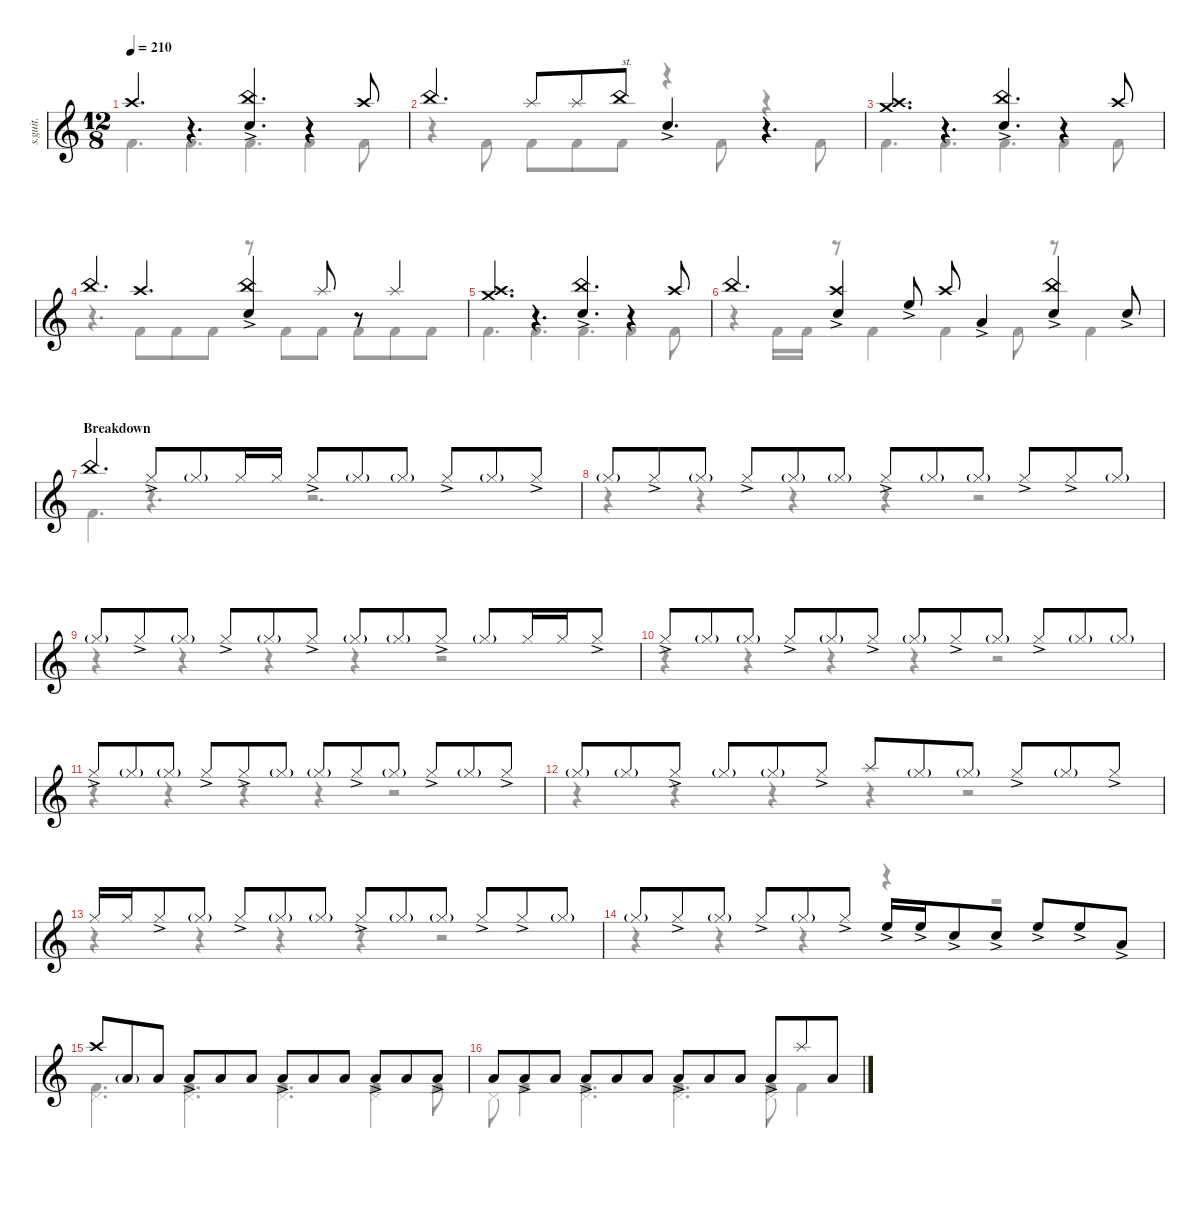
\defaultSystemsLayout 4
\hideDynamics
\bracketExtendMode nobrackets
\track ("Percussion" "s.guit.") {instrument percussion}
\staff {score}
\articulation defaults
\voice
\ts (12 8)
\tempo 210
\clef g2
\ks c "Crash high (hit)".4{d lyrics (0 "") lyrics (1 "") lyrics (2 "") lyrics (3 "") lyrics (4 "") dy f}
r.4{d} ("China (hit)" "Snare (hit) 2"{ac}).4{d lyrics (0 "") lyrics (1 "") lyrics (2 "") lyrics (3 "") lyrics (4 "")} r.4 "Crash high (hit)".8{lyrics (0 "") lyrics (1 "") lyrics (2 "") lyrics (3 "") lyrics (4 "")} |
"China (hit)".4{d lyrics (0 "") lyrics (1 "") lyrics (2 "") lyrics (3 "") lyrics (4 "")} "Splash (hit)".8{lyrics (0 "") lyrics (1 "") lyrics (2 "") lyrics (3 "") lyrics (4 "")} "Splash (hit)".8{lyrics (0 "") lyrics (1 "") lyrics (2 "") lyrics (3 "") lyrics (4 "")} "China (hit)".8{txt "st." lyrics (0 "") lyrics (1 "") lyrics (2 "") lyrics (3 "") lyrics (4 "")} "Snare (hit) 2"{ac}.4{d lyrics (0 "") lyrics (1 "") lyrics (2 "") lyrics (3 "") lyrics (4 "") dy mf} r.4{d} |
("Crash high (hit)" "Crash medium (hit)").4{d lyrics (0 "") lyrics (1 "") lyrics (2 "") lyrics (3 "") lyrics (4 "") dy f} r.4{d} ("China (hit)" "Snare (hit) 2"{ac}).4{d lyrics (0 "") lyrics (1 "") lyrics (2 "") lyrics (3 "") lyrics (4 "")} r.4 "Crash high (hit)".8{lyrics (0 "") lyrics (1 "") lyrics (2 "") lyrics (3 "") lyrics (4 "")} |
"China (hit)".4{d lyrics (0 "") lyrics (1 "") lyrics (2 "") lyrics (3 "") lyrics (4 "")} "Crash high (hit)".4{d lyrics (0 "") lyrics (1 "") lyrics (2 "") lyrics (3 "") lyrics (4 "")} ("China (hit)" "Snare (hit) 2"{ac}).4{lyrics (0 "") lyrics (1 "") lyrics (2 "") lyrics (3 "") lyrics (4 "")} "Splash (hit)".8{lyrics (0 "") lyrics (1 "") lyrics (2 "") lyrics (3 "") lyrics (4 "")} r.8 "Splash (hit)".4{lyrics (0 "") lyrics (1 "") lyrics (2 "") lyrics (3 "") lyrics (4 "")} |
("Crash high (hit)" "Crash medium (hit)").4{d lyrics (0 "") lyrics (1 "") lyrics (2 "") lyrics (3 "") lyrics (4 "")} r.4{d} ("China (hit)" "Snare (hit) 2"{ac}).4{d lyrics (0 "") lyrics (1 "") lyrics (2 "") lyrics (3 "") lyrics (4 "")} r.4 "Crash high (hit)".8{lyrics (0 "") lyrics (1 "") lyrics (2 "") lyrics (3 "") lyrics (4 "")} |
"China (hit)".4{d lyrics (0 "") lyrics (1 "") lyrics (2 "") lyrics (3 "") lyrics (4 "")} ("Crash high (hit)" "Snare (hit) 2"{ac}).4{lyrics (0 "") lyrics (1 "") lyrics (2 "") lyrics (3 "") lyrics (4 "")} "High Floor Tom (hit)"{ac}.8{lyrics (0 "") lyrics (1 "") lyrics (2 "") lyrics (3 "") lyrics (4 "") dy mf} "Crash high (hit)".8{lyrics (0 "") lyrics (1 "") lyrics (2 "") lyrics (3 "") lyrics (4 "") dy f} "Low Tom (hit)"{ac}.4{lyrics (0 "") lyrics (1 "") lyrics (2 "") lyrics (3 "") lyrics (4 "") dy mf} ("China (hit)" "Snare (hit) 2"{ac}).4{lyrics (0 "") lyrics (1 "") lyrics (2 "") lyrics (3 "") lyrics (4 "") dy f} "Snare (hit) 2"{ac}.8{lyrics (0 "") lyrics (1 "") lyrics (2 "") lyrics (3 "") lyrics (4 "") dy mf} |
\section ("" "Breakdown")
"China (hit)".4{d lyrics (0 "") lyrics (1 "") lyrics (2 "") lyrics (3 "") lyrics (4 "") dy f} "Hi-Hat (closed)"{ac}.8{lyrics (0 "") lyrics (1 "") lyrics (2 "") lyrics (3 "") lyrics (4 "") dy mp} "Hi-Hat (closed)"{g}.8{lyrics (0 "") lyrics (1 "") lyrics (2 "") lyrics (3 "") lyrics (4 "") dy f} "Hi-Hat (closed)".16{lyrics (0 "") lyrics (1 "") lyrics (2 "") lyrics (3 "") lyrics (4 "") dy mf} "Hi-Hat (closed)".16{lyrics (0 "") lyrics (1 "") lyrics (2 "") lyrics (3 "") lyrics (4 "")} "Hi-Hat (closed)"{ac}.8{lyrics (0 "") lyrics (1 "") lyrics (2 "") lyrics (3 "") lyrics (4 "") dy mp} "Hi-Hat (closed)"{g}.8{lyrics (0 "") lyrics (1 "") lyrics (2 "") lyrics (3 "") lyrics (4 "") dy f} "Hi-Hat (closed)"{g}.8{lyrics (0 "") lyrics (1 "") lyrics (2 "") lyrics (3 "") lyrics (4 "")} "Hi-Hat (closed)"{ac}.8{lyrics (0 "") lyrics (1 "") lyrics (2 "") lyrics (3 "") lyrics (4 "") dy mp} "Hi-Hat (closed)"{g}.8{lyrics (0 "") lyrics (1 "") lyrics (2 "") lyrics (3 "") lyrics (4 "") dy f} "Hi-Hat (closed)"{ac}.8{lyrics (0 "") lyrics (1 "") lyrics (2 "") lyrics (3 "") lyrics (4 "") dy mp} |
"Hi-Hat (closed)"{g}.8{lyrics (0 "") lyrics (1 "") lyrics (2 "") lyrics (3 "") lyrics (4 "") dy f} "Hi-Hat (closed)"{ac}.8{lyrics (0 "") lyrics (1 "") lyrics (2 "") lyrics (3 "") lyrics (4 "") dy mp} "Hi-Hat (closed)"{g}.8{lyrics (0 "") lyrics (1 "") lyrics (2 "") lyrics (3 "") lyrics (4 "") dy f} "Hi-Hat (closed)"{ac}.8{lyrics (0 "") lyrics (1 "") lyrics (2 "") lyrics (3 "") lyrics (4 "") dy mp} "Hi-Hat (closed)"{g}.8{lyrics (0 "") lyrics (1 "") lyrics (2 "") lyrics (3 "") lyrics (4 "") dy f} "Hi-Hat (closed)"{g}.8{lyrics (0 "") lyrics (1 "") lyrics (2 "") lyrics (3 "") lyrics (4 "")} "Hi-Hat (closed)"{ac}.8{lyrics (0 "") lyrics (1 "") lyrics (2 "") lyrics (3 "") lyrics (4 "") dy mp} "Hi-Hat (closed)"{g}.8{lyrics (0 "") lyrics (1 "") lyrics (2 "") lyrics (3 "") lyrics (4 "") dy f} "Hi-Hat (closed)"{g}.8{lyrics (0 "") lyrics (1 "") lyrics (2 "") lyrics (3 "") lyrics (4 "")} "Hi-Hat (closed)"{ac}.8{lyrics (0 "") lyrics (1 "") lyrics (2 "") lyrics (3 "") lyrics (4 "") dy mp} "Hi-Hat (closed)"{ac}.8{lyrics (0 "") lyrics (1 "") lyrics (2 "") lyrics (3 "") lyrics (4 "")} "Hi-Hat (closed)"{g}.8{lyrics (0 "") lyrics (1 "") lyrics (2 "") lyrics (3 "") lyrics (4 "") dy f} |
"Hi-Hat (closed)"{g}.8{lyrics (0 "") lyrics (1 "") lyrics (2 "") lyrics (3 "") lyrics (4 "")} "Hi-Hat (closed)"{ac}.8{lyrics (0 "") lyrics (1 "") lyrics (2 "") lyrics (3 "") lyrics (4 "") dy mp} "Hi-Hat (closed)"{g}.8{lyrics (0 "") lyrics (1 "") lyrics (2 "") lyrics (3 "") lyrics (4 "") dy f} "Hi-Hat (closed)"{ac}.8{lyrics (0 "") lyrics (1 "") lyrics (2 "") lyrics (3 "") lyrics (4 "") dy mp} "Hi-Hat (closed)"{g}.8{lyrics (0 "") lyrics (1 "") lyrics (2 "") lyrics (3 "") lyrics (4 "") dy f} "Hi-Hat (closed)"{ac}.8{lyrics (0 "") lyrics (1 "") lyrics (2 "") lyrics (3 "") lyrics (4 "") dy mp} "Hi-Hat (closed)"{g}.8{lyrics (0 "") lyrics (1 "") lyrics (2 "") lyrics (3 "") lyrics (4 "") dy f} "Hi-Hat (closed)"{g}.8{lyrics (0 "") lyrics (1 "") lyrics (2 "") lyrics (3 "") lyrics (4 "")} "Hi-Hat (closed)"{ac}.8{lyrics (0 "") lyrics (1 "") lyrics (2 "") lyrics (3 "") lyrics (4 "") dy mp} "Hi-Hat (closed)"{g}.8{lyrics (0 "") lyrics (1 "") lyrics (2 "") lyrics (3 "") lyrics (4 "") dy f} "Hi-Hat (closed)".16{lyrics (0 "") lyrics (1 "") lyrics (2 "") lyrics (3 "") lyrics (4 "") dy mf} "Hi-Hat (closed)".16{lyrics (0 "") lyrics (1 "") lyrics (2 "") lyrics (3 "") lyrics (4 "")} "Hi-Hat (closed)"{ac}.8{lyrics (0 "") lyrics (1 "") lyrics (2 "") lyrics (3 "") lyrics (4 "") dy mp} |
"Hi-Hat (closed)"{ac}.8{lyrics (0 "") lyrics (1 "") lyrics (2 "") lyrics (3 "") lyrics (4 "")} "Hi-Hat (closed)"{g}.8{lyrics (0 "") lyrics (1 "") lyrics (2 "") lyrics (3 "") lyrics (4 "") dy f} "Hi-Hat (closed)"{g}.8{lyrics (0 "") lyrics (1 "") lyrics (2 "") lyrics (3 "") lyrics (4 "")} "Hi-Hat (closed)"{ac}.8{lyrics (0 "") lyrics (1 "") lyrics (2 "") lyrics (3 "") lyrics (4 "") dy mp} "Hi-Hat (closed)"{g}.8{lyrics (0 "") lyrics (1 "") lyrics (2 "") lyrics (3 "") lyrics (4 "") dy f} "Hi-Hat (closed)"{ac}.8{lyrics (0 "") lyrics (1 "") lyrics (2 "") lyrics (3 "") lyrics (4 "") dy mp} "Hi-Hat (closed)"{g}.8{lyrics (0 "") lyrics (1 "") lyrics (2 "") lyrics (3 "") lyrics (4 "") dy f} "Hi-Hat (closed)"{ac}.8{lyrics (0 "") lyrics (1 "") lyrics (2 "") lyrics (3 "") lyrics (4 "") dy mp} "Hi-Hat (closed)"{g}.8{lyrics (0 "") lyrics (1 "") lyrics (2 "") lyrics (3 "") lyrics (4 "") dy f} "Hi-Hat (closed)"{ac}.8{lyrics (0 "") lyrics (1 "") lyrics (2 "") lyrics (3 "") lyrics (4 "") dy mp} "Hi-Hat (closed)"{g}.8{lyrics (0 "") lyrics (1 "") lyrics (2 "") lyrics (3 "") lyrics (4 "") dy f} "Hi-Hat (closed)"{g}.8{lyrics (0 "") lyrics (1 "") lyrics (2 "") lyrics (3 "") lyrics (4 "")} |
"Hi-Hat (closed)"{ac}.8{lyrics (0 "") lyrics (1 "") lyrics (2 "") lyrics (3 "") lyrics (4 "") dy mp} "Hi-Hat (closed)"{g}.8{lyrics (0 "") lyrics (1 "") lyrics (2 "") lyrics (3 "") lyrics (4 "") dy f} "Hi-Hat (closed)"{g}.8{lyrics (0 "") lyrics (1 "") lyrics (2 "") lyrics (3 "") lyrics (4 "")} "Hi-Hat (closed)"{ac}.8{lyrics (0 "") lyrics (1 "") lyrics (2 "") lyrics (3 "") lyrics (4 "") dy mp} "Hi-Hat (closed)"{ac}.8{lyrics (0 "") lyrics (1 "") lyrics (2 "") lyrics (3 "") lyrics (4 "")} "Hi-Hat (closed)"{g}.8{lyrics (0 "") lyrics (1 "") lyrics (2 "") lyrics (3 "") lyrics (4 "") dy f} "Hi-Hat (closed)"{g}.8{lyrics (0 "") lyrics (1 "") lyrics (2 "") lyrics (3 "") lyrics (4 "")} "Hi-Hat (closed)"{ac}.8{lyrics (0 "") lyrics (1 "") lyrics (2 "") lyrics (3 "") lyrics (4 "") dy mp} "Hi-Hat (closed)"{g}.8{lyrics (0 "") lyrics (1 "") lyrics (2 "") lyrics (3 "") lyrics (4 "") dy f} "Hi-Hat (closed)"{ac}.8{lyrics (0 "") lyrics (1 "") lyrics (2 "") lyrics (3 "") lyrics (4 "") dy mp} "Hi-Hat (closed)"{g}.8{lyrics (0 "") lyrics (1 "") lyrics (2 "") lyrics (3 "") lyrics (4 "") dy f} "Hi-Hat (closed)"{ac}.8{lyrics (0 "") lyrics (1 "") lyrics (2 "") lyrics (3 "") lyrics (4 "") dy mp} |
"Hi-Hat (closed)"{g}.8{lyrics (0 "") lyrics (1 "") lyrics (2 "") lyrics (3 "") lyrics (4 "") dy f} "Hi-Hat (closed)"{g}.8{lyrics (0 "") lyrics (1 "") lyrics (2 "") lyrics (3 "") lyrics (4 "")} "Hi-Hat (closed)"{ac}.8{lyrics (0 "") lyrics (1 "") lyrics (2 "") lyrics (3 "") lyrics (4 "") dy mp} "Hi-Hat (closed)"{g}.8{lyrics (0 "") lyrics (1 "") lyrics (2 "") lyrics (3 "") lyrics (4 "") dy f} "Hi-Hat (closed)"{g}.8{lyrics (0 "") lyrics (1 "") lyrics (2 "") lyrics (3 "") lyrics (4 "")} "Hi-Hat (closed)"{ac}.8{lyrics (0 "") lyrics (1 "") lyrics (2 "") lyrics (3 "") lyrics (4 "") dy mp} "Splash (hit)".8{lyrics (0 "") lyrics (1 "") lyrics (2 "") lyrics (3 "") lyrics (4 "") dy mf} "Hi-Hat (closed)"{g}.8{lyrics (0 "") lyrics (1 "") lyrics (2 "") lyrics (3 "") lyrics (4 "") dy f} "Hi-Hat (closed)"{g}.8{lyrics (0 "") lyrics (1 "") lyrics (2 "") lyrics (3 "") lyrics (4 "")} "Hi-Hat (closed)"{ac}.8{lyrics (0 "") lyrics (1 "") lyrics (2 "") lyrics (3 "") lyrics (4 "") dy mp} "Hi-Hat (closed)"{g}.8{lyrics (0 "") lyrics (1 "") lyrics (2 "") lyrics (3 "") lyrics (4 "") dy f} "Hi-Hat (closed)"{ac}.8{lyrics (0 "") lyrics (1 "") lyrics (2 "") lyrics (3 "") lyrics (4 "") dy mp} |
"Hi-Hat (closed)".16{lyrics (0 "") lyrics (1 "") lyrics (2 "") lyrics (3 "") lyrics (4 "") dy mf} "Hi-Hat (closed)".16{lyrics (0 "") lyrics (1 "") lyrics (2 "") lyrics (3 "") lyrics (4 "")} "Hi-Hat (closed)"{ac}.8{lyrics (0 "") lyrics (1 "") lyrics (2 "") lyrics (3 "") lyrics (4 "") dy mp} "Hi-Hat (closed)"{g}.8{lyrics (0 "") lyrics (1 "") lyrics (2 "") lyrics (3 "") lyrics (4 "") dy f} "Hi-Hat (closed)"{ac}.8{lyrics (0 "") lyrics (1 "") lyrics (2 "") lyrics (3 "") lyrics (4 "") dy mp} "Hi-Hat (closed)"{g}.8{lyrics (0 "") lyrics (1 "") lyrics (2 "") lyrics (3 "") lyrics (4 "") dy f} "Hi-Hat (closed)"{g}.8{lyrics (0 "") lyrics (1 "") lyrics (2 "") lyrics (3 "") lyrics (4 "")} "Hi-Hat (closed)"{ac}.8{lyrics (0 "") lyrics (1 "") lyrics (2 "") lyrics (3 "") lyrics (4 "") dy mp} "Hi-Hat (closed)"{g}.8{lyrics (0 "") lyrics (1 "") lyrics (2 "") lyrics (3 "") lyrics (4 "") dy f} "Hi-Hat (closed)"{g}.8{lyrics (0 "") lyrics (1 "") lyrics (2 "") lyrics (3 "") lyrics (4 "")} "Hi-Hat (closed)"{ac}.8{lyrics (0 "") lyrics (1 "") lyrics (2 "") lyrics (3 "") lyrics (4 "") dy mp} "Hi-Hat (closed)"{ac}.8{lyrics (0 "") lyrics (1 "") lyrics (2 "") lyrics (3 "") lyrics (4 "")} "Hi-Hat (closed)"{g}.8{lyrics (0 "") lyrics (1 "") lyrics (2 "") lyrics (3 "") lyrics (4 "") dy f} |
"Hi-Hat (closed)"{g}.8{lyrics (0 "") lyrics (1 "") lyrics (2 "") lyrics (3 "") lyrics (4 "")} "Hi-Hat (closed)"{ac}.8{lyrics (0 "") lyrics (1 "") lyrics (2 "") lyrics (3 "") lyrics (4 "") dy mp} "Hi-Hat (closed)"{g}.8{lyrics (0 "") lyrics (1 "") lyrics (2 "") lyrics (3 "") lyrics (4 "") dy f} "Hi-Hat (closed)"{ac}.8{lyrics (0 "") lyrics (1 "") lyrics (2 "") lyrics (3 "") lyrics (4 "") dy mp} "Hi-Hat (closed)"{g}.8{lyrics (0 "") lyrics (1 "") lyrics (2 "") lyrics (3 "") lyrics (4 "") dy f} "Hi-Hat (closed)"{ac}.8{lyrics (0 "") lyrics (1 "") lyrics (2 "") lyrics (3 "") lyrics (4 "") dy mp} "High Floor Tom (hit)"{ac}.16{lyrics (0 "") lyrics (1 "") lyrics (2 "") lyrics (3 "") lyrics (4 "")} "High Floor Tom (hit)"{ac}.16{lyrics (0 "") lyrics (1 "") lyrics (2 "") lyrics (3 "") lyrics (4 "")} "Snare (hit) 2"{ac}.8{lyrics (0 "") lyrics (1 "") lyrics (2 "") lyrics (3 "") lyrics (4 "")} "Snare (hit) 2"{ac}.8{lyrics (0 "") lyrics (1 "") lyrics (2 "") lyrics (3 "") lyrics (4 "")} "High Floor Tom (hit)"{ac}.8{lyrics (0 "") lyrics (1 "") lyrics (2 "") lyrics (3 "") lyrics (4 "")} "High Floor Tom (hit)"{ac}.8{lyrics (0 "") lyrics (1 "") lyrics (2 "") lyrics (3 "") lyrics (4 "")} "Low Tom (hit)"{ac}.8{lyrics (0 "") lyrics (1 "") lyrics (2 "") lyrics (3 "") lyrics (4 "")} |
"Crash high (hit)".8{lyrics (0 "") lyrics (1 "") lyrics (2 "") lyrics (3 "") lyrics (4 "") dy f} "Low Tom (hit)"{g}.8{lyrics (0 "") lyrics (1 "") lyrics (2 "") lyrics (3 "") lyrics (4 "") dy ff} "Low Tom (hit)".8{lyrics (0 "") lyrics (1 "") lyrics (2 "") lyrics (3 "") lyrics (4 "") dy f} "Low Tom (hit)"{ac}.8{lyrics (0 "") lyrics (1 "") lyrics (2 "") lyrics (3 "") lyrics (4 "") dy mf} "Low Tom (hit)".8{lyrics (0 "") lyrics (1 "") lyrics (2 "") lyrics (3 "") lyrics (4 "") dy f} "Low Tom (hit)".8{lyrics (0 "") lyrics (1 "") lyrics (2 "") lyrics (3 "") lyrics (4 "")} "Low Tom (hit)"{ac}.8{lyrics (0 "") lyrics (1 "") lyrics (2 "") lyrics (3 "") lyrics (4 "") dy mf} "Low Tom (hit)".8{lyrics (0 "") lyrics (1 "") lyrics (2 "") lyrics (3 "") lyrics (4 "") dy f} "Low Tom (hit)".8{lyrics (0 "") lyrics (1 "") lyrics (2 "") lyrics (3 "") lyrics (4 "")} "Low Tom (hit)"{ac}.8{lyrics (0 "") lyrics (1 "") lyrics (2 "") lyrics (3 "") lyrics (4 "") dy mf} "Low Tom (hit)".8{lyrics (0 "") lyrics (1 "") lyrics (2 "") lyrics (3 "") lyrics (4 "") dy f} "Low Tom (hit)"{ac}.8{lyrics (0 "") lyrics (1 "") lyrics (2 "") lyrics (3 "") lyrics (4 "") dy mf} |
"Low Tom (hit)".8{lyrics (0 "") lyrics (1 "") lyrics (2 "") lyrics (3 "") lyrics (4 "") dy f} "Low Tom (hit)"{ac}.8{lyrics (0 "") lyrics (1 "") lyrics (2 "") lyrics (3 "") lyrics (4 "") dy mf} "Low Tom (hit)".8{lyrics (0 "") lyrics (1 "") lyrics (2 "") lyrics (3 "") lyrics (4 "") dy f} "Low Tom (hit)"{ac}.8{lyrics (0 "") lyrics (1 "") lyrics (2 "") lyrics (3 "") lyrics (4 "") dy mf} "Low Tom (hit)".8{lyrics (0 "") lyrics (1 "") lyrics (2 "") lyrics (3 "") lyrics (4 "") dy f} "Low Tom (hit)".8{lyrics (0 "") lyrics (1 "") lyrics (2 "") lyrics (3 "") lyrics (4 "")} "Low Tom (hit)"{ac}.8{lyrics (0 "") lyrics (1 "") lyrics (2 "") lyrics (3 "") lyrics (4 "") dy mf} "Low Tom (hit)".8{lyrics (0 "") lyrics (1 "") lyrics (2 "") lyrics (3 "") lyrics (4 "") dy f} "Low Tom (hit)".8{lyrics (0 "") lyrics (1 "") lyrics (2 "") lyrics (3 "") lyrics (4 "")} "Low Tom (hit)"{ac}.8{lyrics (0 "") lyrics (1 "") lyrics (2 "") lyrics (3 "") lyrics (4 "") dy mf} "Splash (hit)".8{lyrics (0 "") lyrics (1 "") lyrics (2 "") lyrics (3 "") lyrics (4 "") dy f} "Low Tom (hit)".8{lyrics (0 "") lyrics (1 "") lyrics (2 "") lyrics (3 "") lyrics (4 "")}
\voice
\clef g2
\ottava regular
\simile none
\ks c "Kick (hit) 2".4{d lyrics (0 "") lyrics (1 "") lyrics (2 "") lyrics (3 "") lyrics (4 "") dy f} "Kick (hit) 2".4{d lyrics (0 "") lyrics (1 "") lyrics (2 "") lyrics (3 "") lyrics (4 "")} "Kick (hit) 2".4{d lyrics (0 "") lyrics (1 "") lyrics (2 "") lyrics (3 "") lyrics (4 "")} "Kick (hit) 2".4{lyrics (0 "") lyrics (1 "") lyrics (2 "") lyrics (3 "") lyrics (4 "")} "Kick (hit) 2".8{lyrics (0 "") lyrics (1 "") lyrics (2 "") lyrics (3 "") lyrics (4 "")}
|
r.4 "Kick (hit) 2".8{lyrics (0 "") lyrics (1 "") lyrics (2 "") lyrics (3 "") lyrics (4 "")} "Kick (hit) 2".8{lyrics (0 "") lyrics (1 "") lyrics (2 "") lyrics (3 "") lyrics (4 "")} "Kick (hit) 2".8{lyrics (0 "") lyrics (1 "") lyrics (2 "") lyrics (3 "") lyrics (4 "")} "Kick (hit) 2".8{lyrics (0 "") lyrics (1 "") lyrics (2 "") lyrics (3 "") lyrics (4 "")} r.4 "Kick (hit) 2".8{lyrics (0 "") lyrics (1 "") lyrics (2 "") lyrics (3 "") lyrics (4 "")} r.4 "Kick (hit) 2".8{lyrics (0 "") lyrics (1 "") lyrics (2 "") lyrics (3 "") lyrics (4 "")} |
"Kick (hit) 2".4{d lyrics (0 "") lyrics (1 "") lyrics (2 "") lyrics (3 "") lyrics (4 "")} "Kick (hit) 2".4{d lyrics (0 "") lyrics (1 "") lyrics (2 "") lyrics (3 "") lyrics (4 "")} "Kick (hit) 2".4{d lyrics (0 "") lyrics (1 "") lyrics (2 "") lyrics (3 "") lyrics (4 "")} "Kick (hit) 2".4{lyrics (0 "") lyrics (1 "") lyrics (2 "") lyrics (3 "") lyrics (4 "")} "Kick (hit) 2".8{lyrics (0 "") lyrics (1 "") lyrics (2 "") lyrics (3 "") lyrics (4 "")} |
r.4{d} "Kick (hit) 2".8{lyrics (0 "") lyrics (1 "") lyrics (2 "") lyrics (3 "") lyrics (4 "")} "Kick (hit) 2".8{lyrics (0 "") lyrics (1 "") lyrics (2 "") lyrics (3 "") lyrics (4 "")} "Kick (hit) 2".8{lyrics (0 "") lyrics (1 "") lyrics (2 "") lyrics (3 "") lyrics (4 "")} r.8 "Kick (hit) 2".8{lyrics (0 "") lyrics (1 "") lyrics (2 "") lyrics (3 "") lyrics (4 "")} "Kick (hit) 2".8{lyrics (0 "") lyrics (1 "") lyrics (2 "") lyrics (3 "") lyrics (4 "")} "Kick (hit) 2".8{lyrics (0 "") lyrics (1 "") lyrics (2 "") lyrics (3 "") lyrics (4 "")} "Kick (hit) 2".8{lyrics (0 "") lyrics (1 "") lyrics (2 "") lyrics (3 "") lyrics (4 "")} "Kick (hit) 2".8{lyrics (0 "") lyrics (1 "") lyrics (2 "") lyrics (3 "") lyrics (4 "")} |
"Kick (hit) 2".4{d lyrics (0 "") lyrics (1 "") lyrics (2 "") lyrics (3 "") lyrics (4 "")} "Kick (hit) 2".4{d lyrics (0 "") lyrics (1 "") lyrics (2 "") lyrics (3 "") lyrics (4 "")} "Kick (hit) 2".4{d lyrics (0 "") lyrics (1 "") lyrics (2 "") lyrics (3 "") lyrics (4 "")} "Kick (hit) 2".4{lyrics (0 "") lyrics (1 "") lyrics (2 "") lyrics (3 "") lyrics (4 "")} "Kick (hit) 2".8{lyrics (0 "") lyrics (1 "") lyrics (2 "") lyrics (3 "") lyrics (4 "")} |
r.4 "Kick (hit) 2".16{lyrics (0 "") lyrics (1 "") lyrics (2 "") lyrics (3 "") lyrics (4 "")} "Kick (hit) 2".16{lyrics (0 "") lyrics (1 "") lyrics (2 "") lyrics (3 "") lyrics (4 "")} r.8 "Kick (hit) 2".4{lyrics (0 "") lyrics (1 "") lyrics (2 "") lyrics (3 "") lyrics (4 "")} "Kick (hit) 2".4{lyrics (0 "") lyrics (1 "") lyrics (2 "") lyrics (3 "") lyrics (4 "")} "Kick (hit) 2".8{lyrics (0 "") lyrics (1 "") lyrics (2 "") lyrics (3 "") lyrics (4 "")} r.8 "Kick (hit) 2".4{lyrics (0 "") lyrics (1 "") lyrics (2 "") lyrics (3 "") lyrics (4 "")} |
"Kick (hit) 2".4{d lyrics (0 "") lyrics (1 "") lyrics (2 "") lyrics (3 "") lyrics (4 "")} r.4{d} r.2{d} |
r.4 r.4 r.4 r.4 r.2 |
r.4 r.4 r.4 r.4 r.2 |
r.4 r.4 r.4 r.4 r.2 |
r.4 r.4 r.4 r.4 r.2 |
r.4 r.4 r.4 r.4 r.2 |
r.4 r.4 r.4 r.4 r.2 |
r.4 r.4 r.4 r.4 r.2 |
("Kick (hit) 2" "Pedal Hi-Hat (hit)").4{d lyrics (0 "") lyrics (1 "") lyrics (2 "") lyrics (3 "") lyrics (4 "")} ("Kick (hit) 2" "Pedal Hi-Hat (hit)").4{d lyrics (0 "") lyrics (1 "") lyrics (2 "") lyrics (3 "") lyrics (4 "")} ("Kick (hit) 2" "Pedal Hi-Hat (hit)").4{d lyrics (0 "") lyrics (1 "") lyrics (2 "") lyrics (3 "") lyrics (4 "")} ("Kick (hit) 2" "Pedal Hi-Hat (hit)").4{lyrics (0 "") lyrics (1 "") lyrics (2 "") lyrics (3 "") lyrics (4 "")} "Kick (hit) 2".8{lyrics (0 "") lyrics (1 "") lyrics (2 "") lyrics (3 "") lyrics (4 "")} |
"Pedal Hi-Hat (hit)".8{lyrics (0 "") lyrics (1 "") lyrics (2 "") lyrics (3 "") lyrics (4 "")} "Kick (hit) 2".4{lyrics (0 "") lyrics (1 "") lyrics (2 "") lyrics (3 "") lyrics (4 "")} ("Kick (hit) 2" "Pedal Hi-Hat (hit)").4{d lyrics (0 "") lyrics (1 "") lyrics (2 "") lyrics (3 "") lyrics (4 "")} ("Pedal Hi-Hat (hit)" "Kick (hit) 2").4{d lyrics (0 "") lyrics (1 "") lyrics (2 "") lyrics (3 "") lyrics (4 "")} ("Kick (hit) 2" "Pedal Hi-Hat (hit)").8{lyrics (0 "") lyrics (1 "") lyrics (2 "") lyrics (3 "") lyrics (4 "")} "Kick (hit) 2".4{lyrics (0 "") lyrics (1 "") lyrics (2 "") lyrics (3 "") lyrics (4 "")}
